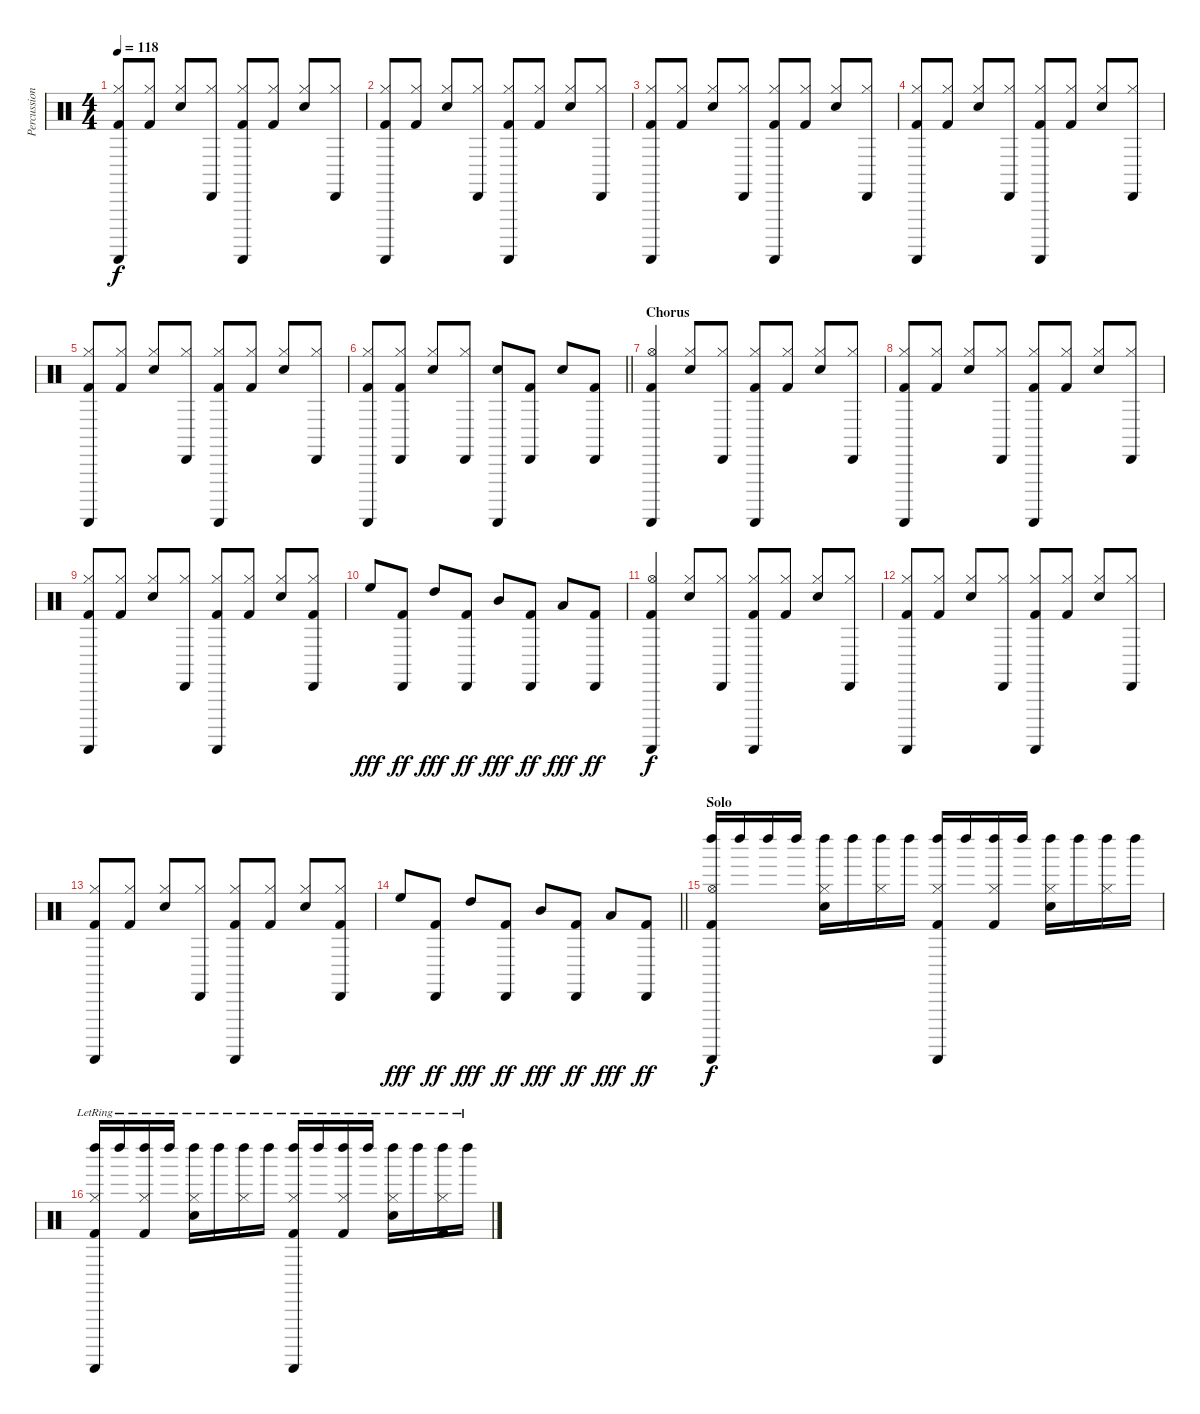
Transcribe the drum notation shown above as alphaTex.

\track ("Percussions" "Percussion") {instrument percussion}
\staff {score}
\articulation defaults
\ts (4 4)
\tempo 118
\clef neutral
\ks c
("Guiro (scrap-return)" "Hi-Hat (closed)" "Kick (hit) 2").8{dy f} ("Hi-Hat (closed)" "Kick (hit) 2").8 ("Hi-Hat (closed)" "Snare (hit) 2").8 ("Cabasa (hit)" "Hi-Hat (closed)").8 ("Guiro (scrap-return)" "Hi-Hat (closed)" "Kick (hit) 2").8 ("Hi-Hat (closed)" "Kick (hit) 2").8 ("Hi-Hat (closed)" "Snare (hit) 2").8 ("Cabasa (hit)" "Hi-Hat (closed)").8 |
("Guiro (scrap-return)" "Hi-Hat (closed)" "Kick (hit) 2").8 ("Hi-Hat (closed)" "Kick (hit) 2").8 ("Hi-Hat (closed)" "Snare (hit) 2").8 ("Cabasa (hit)" "Hi-Hat (closed)").8 ("Guiro (scrap-return)" "Hi-Hat (closed)" "Kick (hit) 2").8 ("Hi-Hat (closed)" "Kick (hit) 2").8 ("Hi-Hat (closed)" "Snare (hit) 2").8 ("Cabasa (hit)" "Hi-Hat (closed)").8 |
("Guiro (scrap-return)" "Hi-Hat (closed)" "Kick (hit) 2").8 ("Hi-Hat (closed)" "Kick (hit) 2").8 ("Hi-Hat (closed)" "Snare (hit) 2").8 ("Cabasa (hit)" "Hi-Hat (closed)").8 ("Guiro (scrap-return)" "Hi-Hat (closed)" "Kick (hit) 2").8 ("Hi-Hat (closed)" "Kick (hit) 2").8 ("Hi-Hat (closed)" "Snare (hit) 2").8 ("Cabasa (hit)" "Hi-Hat (closed)").8 |
("Guiro (scrap-return)" "Hi-Hat (closed)" "Kick (hit) 2").8 ("Hi-Hat (closed)" "Kick (hit) 2").8 ("Hi-Hat (closed)" "Snare (hit) 2").8 ("Cabasa (hit)" "Hi-Hat (closed)").8 ("Guiro (scrap-return)" "Hi-Hat (closed)" "Kick (hit) 2").8 ("Hi-Hat (closed)" "Kick (hit) 2").8 ("Hi-Hat (closed)" "Snare (hit) 2").8 ("Cabasa (hit)" "Hi-Hat (closed)").8 |
("Guiro (scrap-return)" "Hi-Hat (closed)" "Kick (hit) 2").8 ("Hi-Hat (closed)" "Kick (hit) 2").8 ("Hi-Hat (closed)" "Snare (hit) 2").8 ("Cabasa (hit)" "Hi-Hat (closed)").8 ("Guiro (scrap-return)" "Hi-Hat (closed)" "Kick (hit) 2").8 ("Hi-Hat (closed)" "Kick (hit) 2").8 ("Hi-Hat (closed)" "Snare (hit) 2").8 ("Cabasa (hit)" "Hi-Hat (closed)").8 |
\barLineRight lightlight
("Guiro (scrap-return)" "Hi-Hat (closed)" "Kick (hit) 2").8 ("Cabasa (hit)" "Hi-Hat (closed)" "Kick (hit) 2").8 ("Hi-Hat (closed)" "Snare (hit) 2").8 ("Cabasa (hit)" "Hi-Hat (closed)").8 ("Guiro (scrap-return)" "Snare (hit) 2").8 ("Cabasa (hit)" "Kick (hit) 2").8 "Snare (hit) 2".8 ("Cabasa (hit)" "Kick (hit) 2").8 |
\section ("" "Chorus")
("Guiro (scrap-return)" "Hi-Hat (open)" "Kick (hit) 2").4 ("Hi-Hat (closed)" "Snare (hit) 2").8 ("Cabasa (hit)" "Hi-Hat (closed)").8 ("Guiro (scrap-return)" "Hi-Hat (closed)" "Kick (hit) 2").8 ("Hi-Hat (closed)" "Kick (hit) 2").8 ("Hi-Hat (closed)" "Snare (hit) 2").8 ("Cabasa (hit)" "Hi-Hat (closed)").8 |
("Guiro (scrap-return)" "Hi-Hat (closed)" "Kick (hit) 2").8 ("Hi-Hat (closed)" "Kick (hit) 2").8 ("Hi-Hat (closed)" "Snare (hit) 2").8 ("Cabasa (hit)" "Hi-Hat (closed)").8 ("Guiro (scrap-return)" "Hi-Hat (closed)" "Kick (hit) 2").8 ("Hi-Hat (closed)" "Kick (hit) 2").8 ("Hi-Hat (closed)" "Snare (hit) 2").8 ("Cabasa (hit)" "Hi-Hat (closed)").8 |
("Guiro (scrap-return)" "Hi-Hat (closed)" "Kick (hit) 2").8 ("Hi-Hat (closed)" "Kick (hit) 2").8 ("Hi-Hat (closed)" "Snare (hit) 2").8 ("Cabasa (hit)" "Hi-Hat (closed)").8 ("Guiro (scrap-return)" "Hi-Hat (closed)" "Kick (hit) 2").8 ("Hi-Hat (closed)" "Kick (hit) 2").8 ("Hi-Hat (closed)" "Snare (hit) 2").8 ("Cabasa (hit)" "Hi-Hat (closed)" "Kick (hit) 2").8 |
"High Floor Tom (hit)".8{dy fff} ("Cabasa (hit)" "Kick (hit) 2").8{dy ff} "High Tom (hit)".8{dy fff} ("Cabasa (hit)" "Kick (hit) 2").8{dy ff} "Mid Tom (hit)".8{dy fff} ("Cabasa (hit)" "Kick (hit) 2").8{dy ff} "Low Tom (hit)".8{dy fff} ("Cabasa (hit)" "Kick (hit) 2").8{dy ff} |
("Guiro (scrap-return)" "Hi-Hat (open)" "Kick (hit) 2").4{dy f} ("Hi-Hat (closed)" "Snare (hit) 2").8 ("Cabasa (hit)" "Hi-Hat (closed)").8 ("Guiro (scrap-return)" "Hi-Hat (closed)" "Kick (hit) 2").8 ("Hi-Hat (closed)" "Kick (hit) 2").8 ("Hi-Hat (closed)" "Snare (hit) 2").8 ("Cabasa (hit)" "Hi-Hat (closed)").8 |
("Guiro (scrap-return)" "Hi-Hat (closed)" "Kick (hit) 2").8 ("Hi-Hat (closed)" "Kick (hit) 2").8 ("Hi-Hat (closed)" "Snare (hit) 2").8 ("Cabasa (hit)" "Hi-Hat (closed)").8 ("Guiro (scrap-return)" "Hi-Hat (closed)" "Kick (hit) 2").8 ("Hi-Hat (closed)" "Kick (hit) 2").8 ("Hi-Hat (closed)" "Snare (hit) 2").8 ("Cabasa (hit)" "Hi-Hat (closed)").8 |
("Guiro (scrap-return)" "Hi-Hat (closed)" "Kick (hit) 2").8 ("Hi-Hat (closed)" "Kick (hit) 2").8 ("Hi-Hat (closed)" "Snare (hit) 2").8 ("Cabasa (hit)" "Hi-Hat (closed)").8 ("Guiro (scrap-return)" "Hi-Hat (closed)" "Kick (hit) 2").8 ("Hi-Hat (closed)" "Kick (hit) 2").8 ("Hi-Hat (closed)" "Snare (hit) 2").8 ("Cabasa (hit)" "Hi-Hat (closed)" "Kick (hit) 2").8 |
\barLineRight lightlight "High Floor Tom (hit)".8{dy fff}
("Cabasa (hit)" "Kick (hit) 2").8{dy ff} "High Tom (hit)".8{dy fff} ("Cabasa (hit)" "Kick (hit) 2").8{dy ff} "Mid Tom (hit)".8{dy fff} ("Cabasa (hit)" "Kick (hit) 2").8{dy ff} "Low Tom (hit)".8{dy fff} ("Cabasa (hit)" "Kick (hit) 2").8{dy ff} |
\section ("" "Solo")
("Guiro (scrap-return)" "Left Maraca (hit)" "Hi-Hat (open)" "Kick (hit) 2").16{dy f} "Left Maraca (hit)".16 "Left Maraca (hit)".16 "Left Maraca (hit)".16 ("Left Maraca (hit)" "Hi-Hat (closed)" "Snare (hit) 2").16 "Left Maraca (hit)".16 ("Left Maraca (hit)" "Hi-Hat (closed)").16 "Left Maraca (hit)".16 ("Guiro (scrap-return)" "Left Maraca (hit)" "Hi-Hat (closed)" "Kick (hit) 2").16 "Left Maraca (hit)".16 ("Left Maraca (hit)" "Hi-Hat (closed)" "Kick (hit) 2").16 "Left Maraca (hit)".16 ("Left Maraca (hit)" "Hi-Hat (closed)" "Snare (hit) 2").16 "Left Maraca (hit)".16 ("Left Maraca (hit)" "Hi-Hat (closed)").16 "Left Maraca (hit)".16 |
("Guiro (scrap-return)"{lr} "Left Maraca (hit)"{lr} "Hi-Hat (closed)"{lr} "Kick (hit) 2"{lr}).16 "Left Maraca (hit)"{lr}.16 ("Left Maraca (hit)"{lr} "Hi-Hat (closed)"{lr} "Kick (hit) 2"{lr}).16 "Left Maraca (hit)"{lr}.16 ("Left Maraca (hit)"{lr} "Hi-Hat (closed)"{lr} "Snare (hit) 2"{lr}).16 "Left Maraca (hit)"{lr}.16 ("Left Maraca (hit)"{lr} "Hi-Hat (closed)"{lr}).16 "Left Maraca (hit)"{lr}.16 ("Guiro (scrap-return)"{lr} "Left Maraca (hit)"{lr} "Hi-Hat (closed)"{lr} "Kick (hit) 2"{lr}).16 "Left Maraca (hit)"{lr}.16 ("Left Maraca (hit)"{lr} "Hi-Hat (closed)"{lr} "Kick (hit) 2"{lr}).16 "Left Maraca (hit)"{lr}.16 ("Left Maraca (hit)"{lr} "Hi-Hat (closed)"{lr} "Snare (hit) 2"{lr}).16 "Left Maraca (hit)"{lr}.16 ("Left Maraca (hit)"{lr} "Hi-Hat (closed)"{lr} "Kick (hit) 2"{lr}).16 "Left Maraca (hit)"{lr}.16
